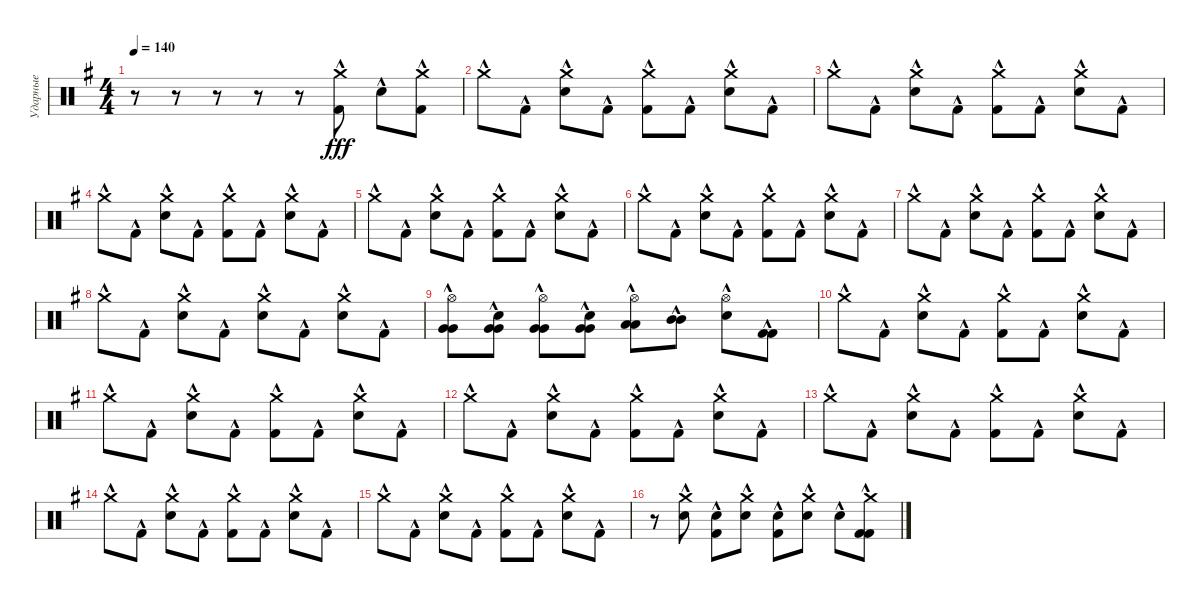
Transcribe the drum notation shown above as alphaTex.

\track ("Ударные" "Ударные") {instrument percussion}
\staff {score}
\articulation defaults
\ts (4 4)
\tempo 140
\clef neutral
\ks g
r.8{dy fff} r.8 r.8 r.8 r.8 ("Crash medium (hit)"{hac} "Kick (hit) 2"{hac}).8 "Electric Snare (hit)"{hac}.8 ("Crash medium (hit)"{hac} "Kick (hit) 2"{hac}).8 |
"Crash medium (hit)"{hac}.8 "Kick (hit) 2"{hac}.8 ("Crash medium (hit)"{hac} "Electric Snare (hit)"{hac}).8 "Kick (hit) 2"{hac}.8 ("Crash medium (hit)"{hac} "Kick (hit) 2"{hac}).8 "Kick (hit) 2"{hac}.8 ("Crash medium (hit)"{hac} "Electric Snare (hit)"{hac}).8 "Kick (hit) 2"{hac}.8 |
"Crash medium (hit)"{hac}.8 "Kick (hit) 2"{hac}.8 ("Crash medium (hit)"{hac} "Electric Snare (hit)"{hac}).8 "Kick (hit) 2"{hac}.8 ("Crash medium (hit)"{hac} "Kick (hit) 2"{hac}).8 "Kick (hit) 2"{hac}.8 ("Crash medium (hit)"{hac} "Electric Snare (hit)"{hac}).8 "Kick (hit) 2"{hac}.8 |
"Crash medium (hit)"{hac}.8 "Kick (hit) 2"{hac}.8 ("Crash medium (hit)"{hac} "Electric Snare (hit)"{hac}).8 "Kick (hit) 2"{hac}.8 ("Crash medium (hit)"{hac} "Kick (hit) 2"{hac}).8 "Kick (hit) 2"{hac}.8 ("Crash medium (hit)"{hac} "Electric Snare (hit)"{hac}).8 "Kick (hit) 2"{hac}.8 |
"Crash medium (hit)"{hac}.8 "Kick (hit) 2"{hac}.8 ("Crash medium (hit)"{hac} "Electric Snare (hit)"{hac}).8 "Kick (hit) 2"{hac}.8 ("Crash medium (hit)"{hac} "Kick (hit) 2"{hac}).8 "Kick (hit) 2"{hac}.8 ("Crash medium (hit)"{hac} "Electric Snare (hit)"{hac}).8 "Kick (hit) 2"{hac}.8 |
"Crash medium (hit)"{hac}.8 "Kick (hit) 2"{hac}.8 ("Crash medium (hit)"{hac} "Electric Snare (hit)"{hac}).8 "Kick (hit) 2"{hac}.8 ("Crash medium (hit)"{hac} "Kick (hit) 2"{hac}).8 "Kick (hit) 2"{hac}.8 ("Crash medium (hit)"{hac} "Electric Snare (hit)"{hac}).8 "Kick (hit) 2"{hac}.8 |
"Crash medium (hit)"{hac}.8 "Kick (hit) 2"{hac}.8 ("Crash medium (hit)"{hac} "Electric Snare (hit)"{hac}).8 "Kick (hit) 2"{hac}.8 ("Crash medium (hit)"{hac} "Kick (hit) 2"{hac}).8 "Kick (hit) 2"{hac}.8 ("Crash medium (hit)"{hac} "Electric Snare (hit)"{hac}).8 "Kick (hit) 2"{hac}.8 |
"Crash medium (hit)"{hac}.8 "Kick (hit) 2"{hac}.8 ("Crash medium (hit)"{hac} "Electric Snare (hit)"{hac}).8 "Kick (hit) 2"{hac}.8 ("Crash medium (hit)"{hac} "Electric Snare (hit)"{hac}).8 "Kick (hit) 2"{hac}.8 ("Crash medium (hit)"{hac} "Electric Snare (hit)"{hac}).8 "Kick (hit) 2"{hac}.8 |
("Hi-Hat (open)"{hac} "Very Low Tom (hit)"{hac} "Very Low Tom (hit)"{hac}).8 ("Electric Snare (hit)"{hac} "Very Low Tom (hit)"{hac} "Very Low Tom (hit)"{hac}).8 ("Hi-Hat (open)"{hac} "Very Low Tom (hit)"{hac} "Very Low Tom (hit)"{hac}).8 ("Electric Snare (hit)"{hac} "Very Low Tom (hit)"{hac} "Very Low Tom (hit)"{hac}).8 ("Hi-Hat (open)"{hac} "Low Tom (hit)"{hac} "Low Tom (hit)"{hac}).8 ("Mid Tom (hit)"{hac} "Mid Tom (hit)"{hac}).8 ("Hi-Hat (open)"{hac} "Electric Snare (hit)"{hac}).8 ("Kick (hit) 2"{hac} "Kick (hit) 2"{hac}).8 |
"Crash medium (hit)"{hac}.8 "Kick (hit) 2"{hac}.8 ("Crash medium (hit)"{hac} "Electric Snare (hit)"{hac}).8 "Kick (hit) 2"{hac}.8 ("Crash medium (hit)"{hac} "Kick (hit) 2"{hac}).8 "Kick (hit) 2"{hac}.8 ("Crash medium (hit)"{hac} "Electric Snare (hit)"{hac}).8 "Kick (hit) 2"{hac}.8 |
"Crash medium (hit)"{hac}.8 "Kick (hit) 2"{hac}.8 ("Crash medium (hit)"{hac} "Electric Snare (hit)"{hac}).8 "Kick (hit) 2"{hac}.8 ("Crash medium (hit)"{hac} "Kick (hit) 2"{hac}).8 "Kick (hit) 2"{hac}.8 ("Crash medium (hit)"{hac} "Electric Snare (hit)"{hac}).8 "Kick (hit) 2"{hac}.8 |
"Crash medium (hit)"{hac}.8 "Kick (hit) 2"{hac}.8 ("Crash medium (hit)"{hac} "Electric Snare (hit)"{hac}).8 "Kick (hit) 2"{hac}.8 ("Crash medium (hit)"{hac} "Kick (hit) 2"{hac}).8 "Kick (hit) 2"{hac}.8 ("Crash medium (hit)"{hac} "Electric Snare (hit)"{hac}).8 "Kick (hit) 2"{hac}.8 |
"Crash medium (hit)"{hac}.8 "Kick (hit) 2"{hac}.8 ("Crash medium (hit)"{hac} "Electric Snare (hit)"{hac}).8 "Kick (hit) 2"{hac}.8 ("Crash medium (hit)"{hac} "Kick (hit) 2"{hac}).8 "Kick (hit) 2"{hac}.8 ("Crash medium (hit)"{hac} "Electric Snare (hit)"{hac}).8 "Kick (hit) 2"{hac}.8 |
"Crash medium (hit)"{hac}.8 "Kick (hit) 2"{hac}.8 ("Crash medium (hit)"{hac} "Electric Snare (hit)"{hac}).8 "Kick (hit) 2"{hac}.8 ("Crash medium (hit)"{hac} "Kick (hit) 2"{hac}).8 "Kick (hit) 2"{hac}.8 ("Crash medium (hit)"{hac} "Electric Snare (hit)"{hac}).8 "Kick (hit) 2"{hac}.8 |
"Crash medium (hit)"{hac}.8 "Kick (hit) 2"{hac}.8 ("Crash medium (hit)"{hac} "Electric Snare (hit)"{hac}).8 "Kick (hit) 2"{hac}.8 ("Crash medium (hit)"{hac} "Kick (hit) 2"{hac}).8 "Kick (hit) 2"{hac}.8 ("Crash medium (hit)"{hac} "Electric Snare (hit)"{hac}).8 "Kick (hit) 2"{hac}.8 |
r.8 ("Crash medium (hit)"{hac} "Electric Snare (hit)"{hac}).8 ("Electric Snare (hit)"{hac} "Kick (hit) 2"{hac}).8 ("Crash medium (hit)"{hac} "Electric Snare (hit)"{hac}).8 ("Electric Snare (hit)"{hac} "Kick (hit) 2"{hac}).8 ("Crash medium (hit)"{hac} "Electric Snare (hit)"{hac}).8 "Electric Snare (hit)"{hac}.8 ("Crash medium (hit)"{hac} "Kick (hit) 2"{hac} "Kick (hit) 2"{hac}).8
